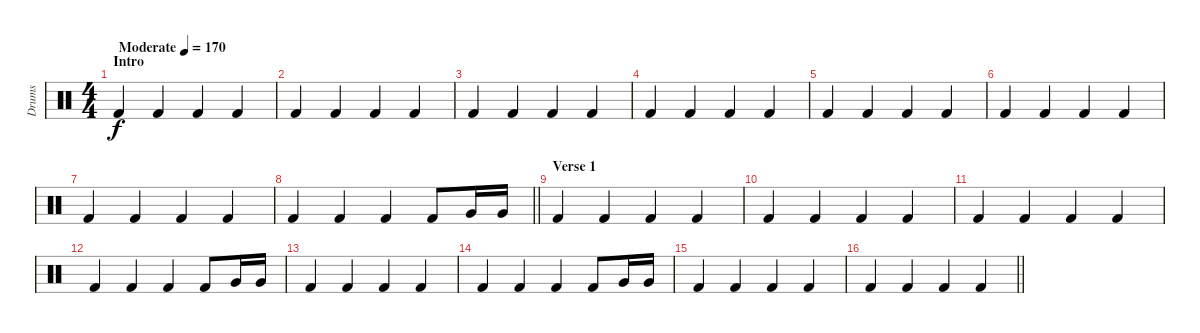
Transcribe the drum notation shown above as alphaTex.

\track ("Drums" "Drums") {instrument percussion}
\staff {score}
\articulation defaults
\ts (4 4)
\section ("" "Intro")
\tempo (170 "Moderate")
\clef neutral
\ks c "Kick (hit) 2".4{dy f} "Kick (hit) 2".4 "Kick (hit) 2".4 "Kick (hit) 2".4
|
"Kick (hit) 2".4 "Kick (hit) 2".4 "Kick (hit) 2".4 "Kick (hit) 2".4 |
"Kick (hit) 2".4 "Kick (hit) 2".4 "Kick (hit) 2".4 "Kick (hit) 2".4 |
"Kick (hit) 2".4 "Kick (hit) 2".4 "Kick (hit) 2".4 "Kick (hit) 2".4 |
"Kick (hit) 2".4 "Kick (hit) 2".4 "Kick (hit) 2".4 "Kick (hit) 2".4 |
"Kick (hit) 2".4 "Kick (hit) 2".4 "Kick (hit) 2".4 "Kick (hit) 2".4 |
"Kick (hit) 2".4 "Kick (hit) 2".4 "Kick (hit) 2".4 "Kick (hit) 2".4 |
\barLineRight lightlight "Kick (hit) 2".4 "Kick (hit) 2".4 "Kick (hit) 2".4 "Kick (hit) 2".8 "Very Low Tom (hit)".16 "Very Low Tom (hit)".16
|
\section ("" "Verse 1")
"Kick (hit) 2".4 "Kick (hit) 2".4 "Kick (hit) 2".4 "Kick (hit) 2".4 |
"Kick (hit) 2".4 "Kick (hit) 2".4 "Kick (hit) 2".4 "Kick (hit) 2".4 |
"Kick (hit) 2".4 "Kick (hit) 2".4 "Kick (hit) 2".4 "Kick (hit) 2".4 |
"Kick (hit) 2".4 "Kick (hit) 2".4 "Kick (hit) 2".4 "Kick (hit) 2".8 "Very Low Tom (hit)".16 "Very Low Tom (hit)".16 |
"Kick (hit) 2".4 "Kick (hit) 2".4 "Kick (hit) 2".4 "Kick (hit) 2".4 |
"Kick (hit) 2".4 "Kick (hit) 2".4 "Kick (hit) 2".4 "Kick (hit) 2".8 "Very Low Tom (hit)".16 "Very Low Tom (hit)".16 |
"Kick (hit) 2".4 "Kick (hit) 2".4 "Kick (hit) 2".4 "Kick (hit) 2".4 |
\barLineRight lightlight "Kick (hit) 2".4 "Kick (hit) 2".4 "Kick (hit) 2".4 "Kick (hit) 2".4
